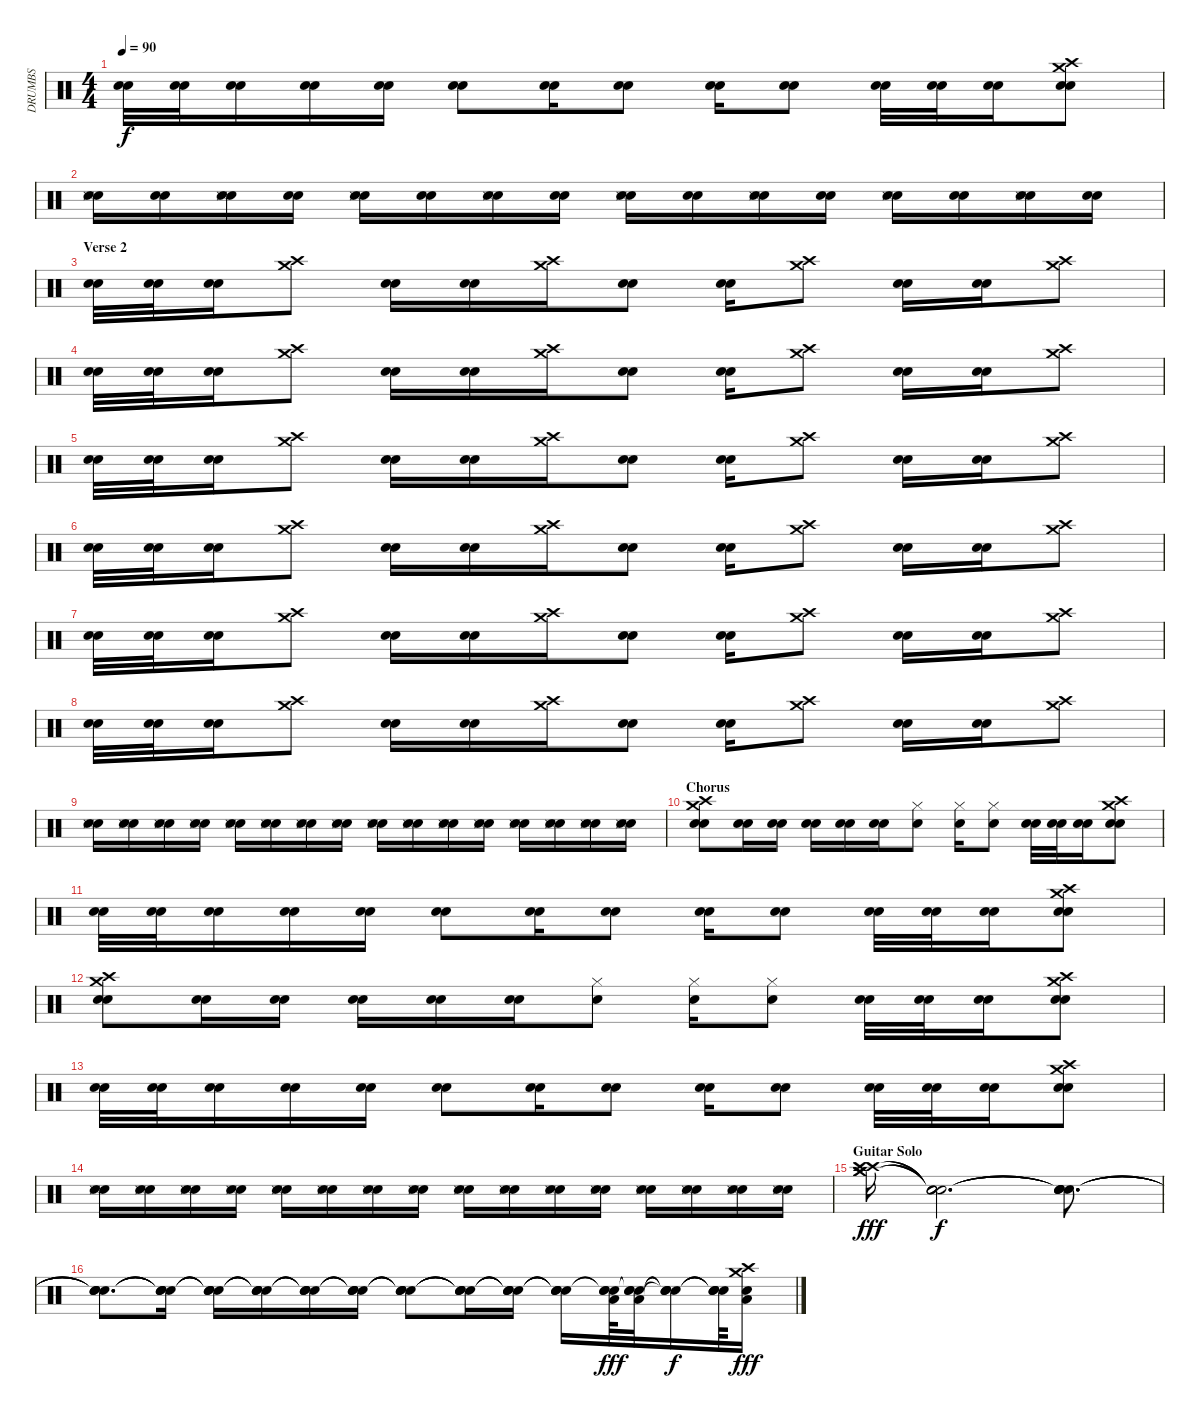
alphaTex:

\track ("DRUMBS" "DRUMBS") {instrument percussion}
\staff {score}
\articulation defaults
\ts (4 4)
\tempo 90
\clef neutral
\ks c
("Electric Snare (hit)" "Snare (hit) 2").32{dy f} ("Electric Snare (hit)" "Snare (hit) 2").32 ("Electric Snare (hit)" "Snare (hit) 2").16 ("Electric Snare (hit)" "Snare (hit) 2").16 ("Electric Snare (hit)" "Snare (hit) 2").16 ("Electric Snare (hit)" "Snare (hit) 2").8 ("Electric Snare (hit)" "Snare (hit) 2").16 ("Electric Snare (hit)" "Snare (hit) 2").8 ("Electric Snare (hit)" "Snare (hit) 2").16 ("Electric Snare (hit)" "Snare (hit) 2").8 ("Electric Snare (hit)" "Snare (hit) 2").32 ("Electric Snare (hit)" "Snare (hit) 2").32 ("Electric Snare (hit)" "Snare (hit) 2").16 ("Electric Snare (hit)" "Snare (hit) 2" "Crash medium (hit)" "Crash high (hit)").8 |
("Electric Snare (hit)" "Snare (side stick) 3" "Snare (hit) 2").16 ("Electric Snare (hit)" "Snare (hit) 2").16 ("Electric Snare (hit)" "Snare (side stick) 3" "Snare (hit) 2").16 ("Electric Snare (hit)" "Snare (hit) 2").16 ("Electric Snare (hit)" "Snare (side stick) 3" "Snare (hit) 2").16 ("Electric Snare (hit)" "Snare (hit) 2").16 ("Electric Snare (hit)" "Snare (side stick) 3" "Snare (hit) 2").16 ("Electric Snare (hit)" "Snare (hit) 2").16 ("Electric Snare (hit)" "Snare (side stick) 3" "Snare (hit) 2").16 ("Electric Snare (hit)" "Snare (hit) 2").16 ("Electric Snare (hit)" "Snare (side stick) 3" "Snare (hit) 2").16 ("Electric Snare (hit)" "Snare (hit) 2").16 ("Electric Snare (hit)" "Snare (side stick) 3" "Snare (hit) 2").16 ("Electric Snare (hit)" "Snare (hit) 2").16 ("Electric Snare (hit)" "Snare (side stick) 3" "Snare (hit) 2").16 ("Electric Snare (hit)" "Snare (hit) 2").16 |
\section ("" "Verse 2")
("Electric Snare (hit)" "Snare (hit) 2").32 ("Electric Snare (hit)" "Snare (hit) 2").32 ("Electric Snare (hit)" "Snare (hit) 2").16 ("Crash medium (hit)" "Crash high (hit)").8 ("Electric Snare (hit)" "Snare (hit) 2").16 ("Electric Snare (hit)" "Snare (hit) 2").16 ("Crash medium (hit)" "Crash high (hit)").16 ("Electric Snare (hit)" "Snare (hit) 2").8 ("Electric Snare (hit)" "Snare (hit) 2").16 ("Crash medium (hit)" "Crash high (hit)").8 ("Electric Snare (hit)" "Snare (hit) 2").16 ("Electric Snare (hit)" "Snare (hit) 2").16 ("Crash medium (hit)" "Crash high (hit)").8 |
("Electric Snare (hit)" "Snare (hit) 2").32 ("Electric Snare (hit)" "Snare (hit) 2").32 ("Electric Snare (hit)" "Snare (hit) 2").16 ("Crash medium (hit)" "Crash high (hit)").8 ("Electric Snare (hit)" "Snare (hit) 2").16 ("Electric Snare (hit)" "Snare (hit) 2").16 ("Crash medium (hit)" "Crash high (hit)").16 ("Electric Snare (hit)" "Snare (hit) 2").8 ("Electric Snare (hit)" "Snare (hit) 2").16 ("Crash medium (hit)" "Crash high (hit)").8 ("Electric Snare (hit)" "Snare (hit) 2").16 ("Electric Snare (hit)" "Snare (hit) 2").16 ("Crash medium (hit)" "Crash high (hit)").8 |
("Electric Snare (hit)" "Snare (hit) 2").32 ("Electric Snare (hit)" "Snare (hit) 2").32 ("Electric Snare (hit)" "Snare (hit) 2").16 ("Crash medium (hit)" "Crash high (hit)").8 ("Electric Snare (hit)" "Snare (hit) 2").16 ("Electric Snare (hit)" "Snare (hit) 2").16 ("Crash medium (hit)" "Crash high (hit)").16 ("Electric Snare (hit)" "Snare (hit) 2").8 ("Electric Snare (hit)" "Snare (hit) 2").16 ("Crash medium (hit)" "Crash high (hit)").8 ("Electric Snare (hit)" "Snare (hit) 2").16 ("Electric Snare (hit)" "Snare (hit) 2").16 ("Crash medium (hit)" "Crash high (hit)").8 |
("Electric Snare (hit)" "Snare (hit) 2").32 ("Electric Snare (hit)" "Snare (hit) 2").32 ("Electric Snare (hit)" "Snare (hit) 2").16 ("Crash medium (hit)" "Crash high (hit)").8 ("Electric Snare (hit)" "Snare (hit) 2").16 ("Electric Snare (hit)" "Snare (hit) 2").16 ("Crash medium (hit)" "Crash high (hit)").16 ("Electric Snare (hit)" "Snare (hit) 2").8 ("Electric Snare (hit)" "Snare (hit) 2").16 ("Crash medium (hit)" "Crash high (hit)").8 ("Electric Snare (hit)" "Snare (hit) 2").16 ("Electric Snare (hit)" "Snare (hit) 2").16 ("Crash medium (hit)" "Crash high (hit)").8 |
("Electric Snare (hit)" "Snare (hit) 2").32 ("Electric Snare (hit)" "Snare (hit) 2").32 ("Electric Snare (hit)" "Snare (hit) 2").16 ("Crash medium (hit)" "Crash high (hit)").8 ("Electric Snare (hit)" "Snare (hit) 2").16 ("Electric Snare (hit)" "Snare (hit) 2").16 ("Crash medium (hit)" "Crash high (hit)").16 ("Electric Snare (hit)" "Snare (hit) 2").8 ("Electric Snare (hit)" "Snare (hit) 2").16 ("Crash medium (hit)" "Crash high (hit)").8 ("Electric Snare (hit)" "Snare (hit) 2").16 ("Electric Snare (hit)" "Snare (hit) 2").16 ("Crash medium (hit)" "Crash high (hit)").8 |
("Electric Snare (hit)" "Snare (hit) 2").32 ("Electric Snare (hit)" "Snare (hit) 2").32 ("Electric Snare (hit)" "Snare (hit) 2").16 ("Crash medium (hit)" "Crash high (hit)").8 ("Electric Snare (hit)" "Snare (hit) 2").16 ("Electric Snare (hit)" "Snare (hit) 2").16 ("Crash medium (hit)" "Crash high (hit)").16 ("Electric Snare (hit)" "Snare (hit) 2").8 ("Electric Snare (hit)" "Snare (hit) 2").16 ("Crash medium (hit)" "Crash high (hit)").8 ("Electric Snare (hit)" "Snare (hit) 2").16 ("Electric Snare (hit)" "Snare (hit) 2").16 ("Crash medium (hit)" "Crash high (hit)").8 |
("Electric Snare (hit)" "Snare (side stick) 3" "Snare (hit) 2").16 ("Electric Snare (hit)" "Snare (side stick) 3" "Snare (hit) 2").16 ("Electric Snare (hit)" "Snare (side stick) 3" "Snare (hit) 2").16 ("Electric Snare (hit)" "Snare (side stick) 3" "Snare (hit) 2").16 ("Electric Snare (hit)" "Snare (side stick) 3" "Snare (hit) 2").16 ("Electric Snare (hit)" "Snare (side stick) 3" "Snare (hit) 2").16 ("Electric Snare (hit)" "Snare (side stick) 3" "Snare (hit) 2").16 ("Electric Snare (hit)" "Snare (side stick) 3" "Snare (hit) 2").16 ("Electric Snare (hit)" "Snare (side stick) 3" "Snare (hit) 2").16 ("Electric Snare (hit)" "Snare (side stick) 3" "Snare (hit) 2").16 ("Electric Snare (hit)" "Snare (side stick) 3" "Snare (hit) 2").16 ("Electric Snare (hit)" "Snare (side stick) 3" "Snare (hit) 2").16 ("Electric Snare (hit)" "Snare (side stick) 3" "Snare (hit) 2").16 ("Electric Snare (hit)" "Snare (side stick) 3" "Snare (hit) 2").16 ("Electric Snare (hit)" "Snare (side stick) 3" "Snare (hit) 2").16 ("Electric Snare (hit)" "Snare (side stick) 3" "Snare (hit) 2").16 |
\section ("" "Chorus")
("Electric Snare (hit)" "Snare (hit) 2" "Crash medium (hit)" "Crash high (hit)").8 ("Electric Snare (hit)" "Snare (hit) 2").16 ("Electric Snare (hit)" "Snare (hit) 2").16 ("Electric Snare (hit)" "Snare (hit) 2").16 ("Electric Snare (hit)" "Snare (hit) 2").16 ("Electric Snare (hit)" "Snare (hit) 2").16 ("Snare (hit) 2" "Hi-Hat (closed)").8 ("Snare (hit) 2" "Hi-Hat (closed)").16 ("Snare (hit) 2" "Hi-Hat (closed)").8 ("Electric Snare (hit)" "Snare (hit) 2").32 ("Electric Snare (hit)" "Snare (hit) 2").32 ("Electric Snare (hit)" "Snare (hit) 2").16 ("Electric Snare (hit)" "Snare (hit) 2" "Crash medium (hit)" "Crash high (hit)").8 |
("Electric Snare (hit)" "Snare (hit) 2").32 ("Electric Snare (hit)" "Snare (hit) 2").32 ("Electric Snare (hit)" "Snare (hit) 2").16 ("Electric Snare (hit)" "Snare (hit) 2").16 ("Electric Snare (hit)" "Snare (hit) 2").16 ("Electric Snare (hit)" "Snare (hit) 2").8 ("Electric Snare (hit)" "Snare (hit) 2").16 ("Electric Snare (hit)" "Snare (hit) 2").8 ("Electric Snare (hit)" "Snare (hit) 2").16 ("Electric Snare (hit)" "Snare (hit) 2").8 ("Electric Snare (hit)" "Snare (hit) 2").32 ("Electric Snare (hit)" "Snare (hit) 2").32 ("Electric Snare (hit)" "Snare (hit) 2").16 ("Electric Snare (hit)" "Snare (hit) 2" "Crash medium (hit)" "Crash high (hit)").8 |
("Electric Snare (hit)" "Snare (hit) 2" "Crash medium (hit)" "Crash high (hit)").8 ("Electric Snare (hit)" "Snare (hit) 2").16 ("Electric Snare (hit)" "Snare (hit) 2").16 ("Electric Snare (hit)" "Snare (hit) 2").16 ("Electric Snare (hit)" "Snare (hit) 2").16 ("Electric Snare (hit)" "Snare (hit) 2").16 ("Snare (hit) 2" "Hi-Hat (closed)").8 ("Snare (hit) 2" "Hi-Hat (closed)").16 ("Snare (hit) 2" "Hi-Hat (closed)").8 ("Electric Snare (hit)" "Snare (hit) 2").32 ("Electric Snare (hit)" "Snare (hit) 2").32 ("Electric Snare (hit)" "Snare (hit) 2").16 ("Electric Snare (hit)" "Snare (hit) 2" "Crash medium (hit)" "Crash high (hit)").8 |
("Electric Snare (hit)" "Snare (hit) 2").32 ("Electric Snare (hit)" "Snare (hit) 2").32 ("Electric Snare (hit)" "Snare (hit) 2").16 ("Electric Snare (hit)" "Snare (hit) 2").16 ("Electric Snare (hit)" "Snare (hit) 2").16 ("Electric Snare (hit)" "Snare (hit) 2").8 ("Electric Snare (hit)" "Snare (hit) 2").16 ("Electric Snare (hit)" "Snare (hit) 2").8 ("Electric Snare (hit)" "Snare (hit) 2").16 ("Electric Snare (hit)" "Snare (hit) 2").8 ("Electric Snare (hit)" "Snare (hit) 2").32 ("Electric Snare (hit)" "Snare (hit) 2").32 ("Electric Snare (hit)" "Snare (hit) 2").16 ("Electric Snare (hit)" "Snare (hit) 2" "Crash medium (hit)" "Crash high (hit)").8 |
("Electric Snare (hit)" "Snare (side stick) 3" "Snare (hit) 2").16 ("Electric Snare (hit)" "Snare (side stick) 3" "Snare (hit) 2").16 ("Electric Snare (hit)" "Snare (side stick) 3" "Snare (hit) 2").16 ("Electric Snare (hit)" "Snare (side stick) 3" "Snare (hit) 2").16 ("Electric Snare (hit)" "Snare (side stick) 3" "Snare (hit) 2").16 ("Electric Snare (hit)" "Snare (side stick) 3" "Snare (hit) 2").16 ("Electric Snare (hit)" "Snare (side stick) 3" "Snare (hit) 2").16 ("Electric Snare (hit)" "Snare (side stick) 3" "Snare (hit) 2").16 ("Electric Snare (hit)" "Snare (side stick) 3" "Snare (hit) 2").16 ("Electric Snare (hit)" "Snare (side stick) 3" "Snare (hit) 2").16 ("Electric Snare (hit)" "Snare (side stick) 3" "Snare (hit) 2").16 ("Electric Snare (hit)" "Snare (side stick) 3" "Snare (hit) 2").16 ("Electric Snare (hit)" "Snare (side stick) 3" "Snare (hit) 2").16 ("Electric Snare (hit)" "Snare (side stick) 3" "Snare (hit) 2").16 ("Electric Snare (hit)" "Snare (side stick) 3" "Snare (hit) 2").16 ("Electric Snare (hit)" "Snare (side stick) 3" "Snare (hit) 2").16 |
\section ("" "Guitar Solo")
("Crash high (hit)" "Crash medium (hit)" "Crash high (hit)" "Crash medium (hit)").16{dy fff volume 16} ("Snare (hit)"{t} "Snare (hit)"{t} "Snare (hit)"{t} "Snare (hit)"{t}).2{d dy f} ("Snare (hit)"{t} "Snare (hit)"{t} "Snare (hit)"{t} "Snare (hit)"{t}).8{d} |
("Snare (hit)"{t} "Snare (hit)"{t} "Snare (hit)"{t} "Snare (hit)"{t}).8{d} ("Snare (hit)"{t} "Snare (hit)"{t} "Snare (hit)"{t} "Snare (hit)"{t}).16 ("Snare (hit)"{t} "Snare (hit)"{t} "Snare (hit)"{t} "Snare (hit)"{t}).16 ("Snare (hit)"{t} "Snare (hit)"{t} "Snare (hit)"{t} "Snare (hit)"{t}).16 ("Snare (hit)"{t} "Snare (hit)"{t} "Snare (hit)"{t} "Snare (hit)"{t}).16 ("Snare (hit)"{t} "Snare (hit)"{t} "Snare (hit)"{t} "Snare (hit)"{t}).16 ("Snare (hit)"{t} "Snare (hit)"{t} "Snare (hit)"{t} "Snare (hit)"{t}).8 ("Snare (hit)"{t} "Snare (hit)"{t} "Snare (hit)"{t} "Snare (hit)"{t}).16 ("Snare (hit)"{t} "Snare (hit)"{t} "Snare (hit)"{t} "Snare (hit)"{t}).16 ("Snare (hit)"{t} "Snare (hit)"{t} "Snare (hit)"{t} "Snare (hit)"{t}).16 ("Electric Snare (hit)" "Low Tom (hit)" "Snare (hit)"{t} "Snare (hit)"{t}).64{dy fff} ("Electric Snare (hit)" "Low Tom (hit)" "Snare (hit)"{t} "Snare (hit)"{t}).32 ("Snare (hit)"{t} "Snare (hit)"{t} "Snare (hit)"{t} "Snare (hit)"{t}).16{dy f} ("Snare (hit)"{t} "Snare (hit)"{t} "Snare (hit)"{t} "Snare (hit)"{t}).64 ("Electric Snare (hit)" "Low Tom (hit)" "Crash high (hit)" "Crash medium (hit)").16{dy fff}
